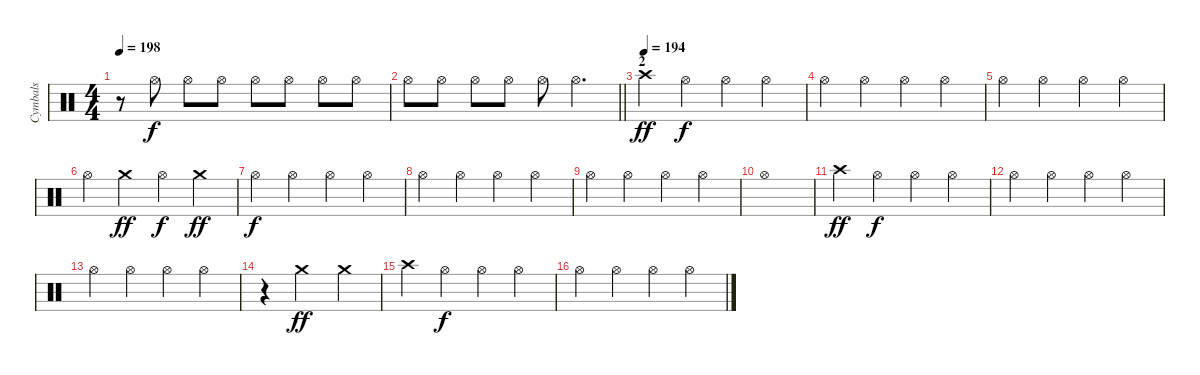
\track ("Cymbals" "Cymbals") {instrument percussion}
\staff {score}
\articulation defaults
\ts (4 4)
\tempo 198
\clef neutral
\ks c
r.8{dy fff} "Hi-Hat (open)".8{dy f} "Hi-Hat (open)".8 "Hi-Hat (open)".8 "Hi-Hat (open)".8 "Hi-Hat (open)".8 "Hi-Hat (open)".8 "Hi-Hat (open)".8 |
\barLineRight lightlight "Hi-Hat (open)".8 "Hi-Hat (open)".8 "Hi-Hat (open)".8 "Hi-Hat (open)".8 "Hi-Hat (open)".8 "Hi-Hat (open)".4{d}
|
\section ("" "2")
\tempo (194)
"Crash high (hit)".4{dy ff} "Hi-Hat (open)".4{dy f} "Hi-Hat (open)".4 "Hi-Hat (open)".4 |
"Hi-Hat (open)".4 "Hi-Hat (open)".4 "Hi-Hat (open)".4 "Hi-Hat (open)".4 |
"Hi-Hat (open)".4 "Hi-Hat (open)".4 "Hi-Hat (open)".4 "Hi-Hat (open)".4 |
"Hi-Hat (open)".4 "Crash medium (hit)".4{dy ff} "Hi-Hat (open)".4{dy f} "Crash medium (hit)".4{dy ff} |
"Hi-Hat (open)".4{dy f} "Hi-Hat (open)".4 "Hi-Hat (open)".4 "Hi-Hat (open)".4 |
"Hi-Hat (open)".4 "Hi-Hat (open)".4 "Hi-Hat (open)".4 "Hi-Hat (open)".4 |
"Hi-Hat (open)".4 "Hi-Hat (open)".4 "Hi-Hat (open)".4 "Hi-Hat (open)".4 |
"Hi-Hat (open)".1 |
"Crash high (hit)".4{dy ff} "Hi-Hat (open)".4{dy f} "Hi-Hat (open)".4 "Hi-Hat (open)".4 |
"Hi-Hat (open)".4 "Hi-Hat (open)".4 "Hi-Hat (open)".4 "Hi-Hat (open)".4 |
"Hi-Hat (open)".4 "Hi-Hat (open)".4 "Hi-Hat (open)".4 "Hi-Hat (open)".4 |
r.4 "Crash medium (hit)".2{dy ff} "Crash medium (hit)".4 |
"Crash high (hit)".4 "Hi-Hat (open)".4{dy f} "Hi-Hat (open)".4 "Hi-Hat (open)".4 |
"Hi-Hat (open)".4 "Hi-Hat (open)".4 "Hi-Hat (open)".4 "Hi-Hat (open)".4
